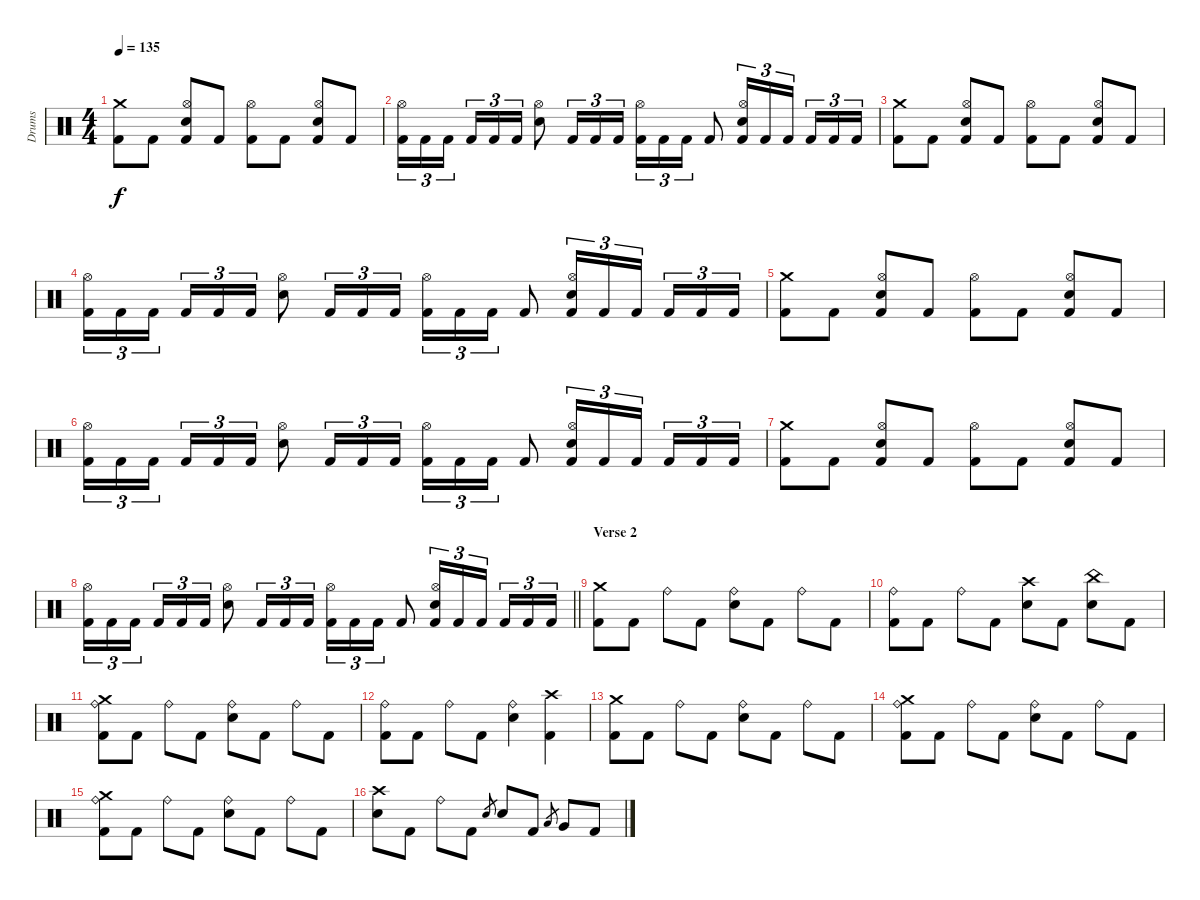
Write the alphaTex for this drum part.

\track ("Drums" "Drums") {instrument percussion}
\staff {score}
\articulation defaults
\ts (4 4)
\tempo 135
\clef neutral
\ks c
("Crash medium (hit)" "Kick (hit) 2").8{dy f} "Kick (hit) 2".8 ("Hi-Hat (open)" "Snare (hit) 2" "Kick (hit) 2").8 "Kick (hit) 2".8 ("Hi-Hat (open)" "Kick (hit) 2").8 "Kick (hit) 2".8 ("Hi-Hat (open)" "Snare (hit) 2" "Kick (hit) 2").8 "Kick (hit) 2".8 |
("Hi-Hat (open)" "Kick (hit) 2").16{tu (3 2)} "Kick (hit) 2".16{tu (3 2)} "Kick (hit) 2".16{tu (3 2) beam splitsecondary} "Kick (hit) 2".16{tu (3 2)} "Kick (hit) 2".16{tu (3 2)} "Kick (hit) 2".16{tu (3 2)} ("Hi-Hat (open)" "Snare (hit) 2").8 "Kick (hit) 2".16{tu (3 2)} "Kick (hit) 2".16{tu (3 2)} "Kick (hit) 2".16{tu (3 2)} ("Hi-Hat (open)" "Kick (hit) 2").16{tu (3 2)} "Kick (hit) 2".16{tu (3 2)} "Kick (hit) 2".16{tu (3 2)} "Kick (hit) 2".8 ("Hi-Hat (open)" "Snare (hit) 2" "Kick (hit) 2").16{tu (3 2)} "Kick (hit) 2".16{tu (3 2)} "Kick (hit) 2".16{tu (3 2) beam splitsecondary} "Kick (hit) 2".16{tu (3 2)} "Kick (hit) 2".16{tu (3 2)} "Kick (hit) 2".16{tu (3 2)} |
("Crash medium (hit)" "Kick (hit) 2").8 "Kick (hit) 2".8 ("Hi-Hat (open)" "Snare (hit) 2" "Kick (hit) 2").8 "Kick (hit) 2".8 ("Hi-Hat (open)" "Kick (hit) 2").8 "Kick (hit) 2".8 ("Hi-Hat (open)" "Snare (hit) 2" "Kick (hit) 2").8 "Kick (hit) 2".8 |
("Hi-Hat (open)" "Kick (hit) 2").16{tu (3 2)} "Kick (hit) 2".16{tu (3 2)} "Kick (hit) 2".16{tu (3 2) beam splitsecondary} "Kick (hit) 2".16{tu (3 2)} "Kick (hit) 2".16{tu (3 2)} "Kick (hit) 2".16{tu (3 2)} ("Hi-Hat (open)" "Snare (hit) 2").8 "Kick (hit) 2".16{tu (3 2)} "Kick (hit) 2".16{tu (3 2)} "Kick (hit) 2".16{tu (3 2)} ("Hi-Hat (open)" "Kick (hit) 2").16{tu (3 2)} "Kick (hit) 2".16{tu (3 2)} "Kick (hit) 2".16{tu (3 2)} "Kick (hit) 2".8 ("Hi-Hat (open)" "Snare (hit) 2" "Kick (hit) 2").16{tu (3 2)} "Kick (hit) 2".16{tu (3 2)} "Kick (hit) 2".16{tu (3 2) beam splitsecondary} "Kick (hit) 2".16{tu (3 2)} "Kick (hit) 2".16{tu (3 2)} "Kick (hit) 2".16{tu (3 2)} |
("Crash medium (hit)" "Kick (hit) 2").8 "Kick (hit) 2".8 ("Hi-Hat (open)" "Snare (hit) 2" "Kick (hit) 2").8 "Kick (hit) 2".8 ("Hi-Hat (open)" "Kick (hit) 2").8 "Kick (hit) 2".8 ("Hi-Hat (open)" "Snare (hit) 2" "Kick (hit) 2").8 "Kick (hit) 2".8 |
("Hi-Hat (open)" "Kick (hit) 2").16{tu (3 2)} "Kick (hit) 2".16{tu (3 2)} "Kick (hit) 2".16{tu (3 2) beam splitsecondary} "Kick (hit) 2".16{tu (3 2)} "Kick (hit) 2".16{tu (3 2)} "Kick (hit) 2".16{tu (3 2)} ("Hi-Hat (open)" "Snare (hit) 2").8 "Kick (hit) 2".16{tu (3 2)} "Kick (hit) 2".16{tu (3 2)} "Kick (hit) 2".16{tu (3 2)} ("Hi-Hat (open)" "Kick (hit) 2").16{tu (3 2)} "Kick (hit) 2".16{tu (3 2)} "Kick (hit) 2".16{tu (3 2)} "Kick (hit) 2".8 ("Hi-Hat (open)" "Snare (hit) 2" "Kick (hit) 2").16{tu (3 2)} "Kick (hit) 2".16{tu (3 2)} "Kick (hit) 2".16{tu (3 2) beam splitsecondary} "Kick (hit) 2".16{tu (3 2)} "Kick (hit) 2".16{tu (3 2)} "Kick (hit) 2".16{tu (3 2)} |
("Crash medium (hit)" "Kick (hit) 2").8 "Kick (hit) 2".8 ("Hi-Hat (open)" "Snare (hit) 2" "Kick (hit) 2").8 "Kick (hit) 2".8 ("Hi-Hat (open)" "Kick (hit) 2").8 "Kick (hit) 2".8 ("Hi-Hat (open)" "Snare (hit) 2" "Kick (hit) 2").8 "Kick (hit) 2".8 |
\barLineRight lightlight
("Hi-Hat (open)" "Kick (hit) 2").16{tu (3 2)} "Kick (hit) 2".16{tu (3 2)} "Kick (hit) 2".16{tu (3 2) beam splitsecondary} "Kick (hit) 2".16{tu (3 2)} "Kick (hit) 2".16{tu (3 2)} "Kick (hit) 2".16{tu (3 2)} ("Hi-Hat (open)" "Snare (hit) 2").8 "Kick (hit) 2".16{tu (3 2)} "Kick (hit) 2".16{tu (3 2)} "Kick (hit) 2".16{tu (3 2)} ("Hi-Hat (open)" "Kick (hit) 2").16{tu (3 2)} "Kick (hit) 2".16{tu (3 2)} "Kick (hit) 2".16{tu (3 2)} "Kick (hit) 2".8 ("Hi-Hat (open)" "Snare (hit) 2" "Kick (hit) 2").16{tu (3 2)} "Kick (hit) 2".16{tu (3 2)} "Kick (hit) 2".16{tu (3 2) beam splitsecondary} "Kick (hit) 2".16{tu (3 2)} "Kick (hit) 2".16{tu (3 2)} "Kick (hit) 2".16{tu (3 2)} |
\section ("" "Verse 2")
("Crash medium (hit)" "Kick (hit) 2").8 "Kick (hit) 2".8 "Ride (bell)".8 "Kick (hit) 2".8 ("Ride (bell)" "Snare (hit) 2").8 "Kick (hit) 2".8 "Ride (bell)".8 "Kick (hit) 2".8 |
("Ride (bell)" "Kick (hit) 2").8 "Kick (hit) 2".8 "Ride (bell)".8 "Kick (hit) 2".8 ("Crash high (hit)" "Snare (hit) 2").8 "Kick (hit) 2".8 ("China (hit)" "Snare (hit) 2").8 "Kick (hit) 2".8 |
("Crash medium (hit)" "Ride (bell)" "Kick (hit) 2").8 "Kick (hit) 2".8 "Ride (bell)".8 "Kick (hit) 2".8 ("Ride (bell)" "Snare (hit) 2").8 "Kick (hit) 2".8 "Ride (bell)".8 "Kick (hit) 2".8 |
("Ride (bell)" "Kick (hit) 2").8 "Kick (hit) 2".8 "Ride (bell)".8 "Kick (hit) 2".8 ("Ride (bell)" "Snare (hit) 2").4 ("Crash high (hit)" "Kick (hit) 2").4 |
("Crash medium (hit)" "Kick (hit) 2").8 "Kick (hit) 2".8 "Ride (bell)".8 "Kick (hit) 2".8 ("Ride (bell)" "Snare (hit) 2").8 "Kick (hit) 2".8 "Ride (bell)".8 "Kick (hit) 2".8 |
("Crash medium (hit)" "Ride (bell)" "Kick (hit) 2").8 "Kick (hit) 2".8 "Ride (bell)".8 "Kick (hit) 2".8 ("Ride (bell)" "Snare (hit) 2").8 "Kick (hit) 2".8 "Ride (bell)".8 "Kick (hit) 2".8 |
("Crash medium (hit)" "Ride (bell)" "Kick (hit) 2").8 "Kick (hit) 2".8 "Ride (bell)".8 "Kick (hit) 2".8 ("Ride (bell)" "Snare (hit) 2").8 "Kick (hit) 2".8 "Ride (bell)".8 "Kick (hit) 2".8 |
("Crash high (hit)" "Snare (hit) 2").8 "Kick (hit) 2".8 "Ride (bell)".8 "Kick (hit) 2".8 "Snare (hit) 2".8{gr} "Snare (hit) 2".8 "Kick (hit) 2".8 "Low Tom (hit)".8{gr} "Very Low Tom (hit)".8 "Kick (hit) 2".8
